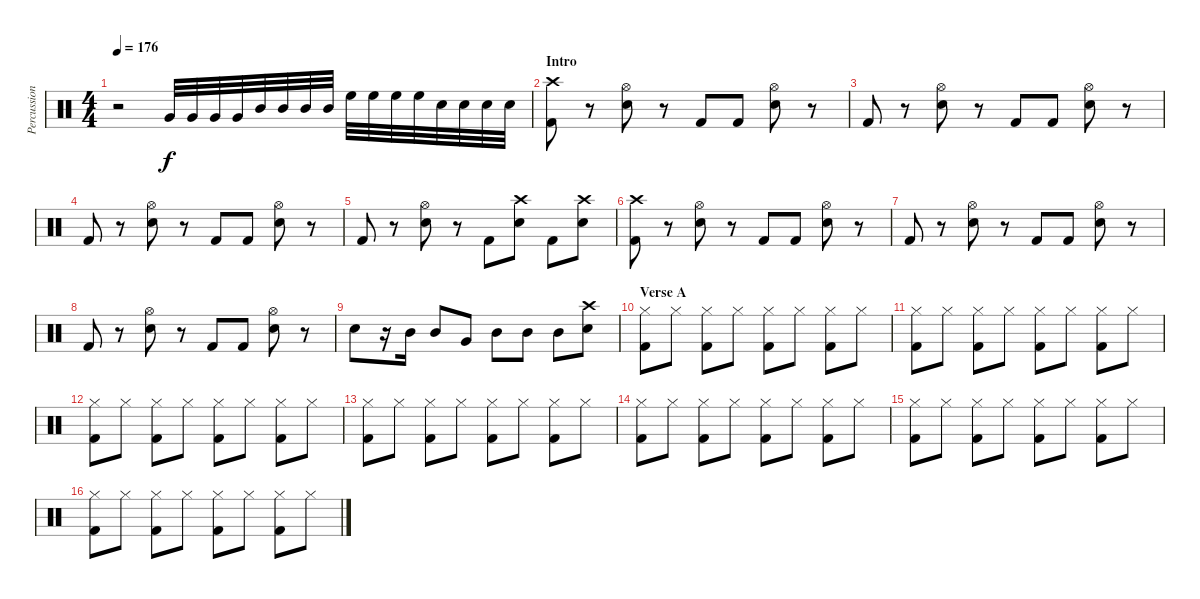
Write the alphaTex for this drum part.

\track ("Percussion" "Percussion") {instrument percussion}
\staff {score}
\articulation defaults
\ts (4 4)
\tempo 176
\clef neutral
\ks c
r.2{dy f} "Very Low Tom (hit)".32 "Very Low Tom (hit)".32 "Very Low Tom (hit)".32 "Very Low Tom (hit)".32 "Mid Tom (hit)".32 "Mid Tom (hit)".32 "Mid Tom (hit)".32 "Mid Tom (hit)".32 "High Floor Tom (hit)".32 "High Floor Tom (hit)".32 "High Floor Tom (hit)".32 "High Floor Tom (hit)".32 "Snare (hit) 2".32 "Snare (hit) 2".32 "Snare (hit) 2".32 "Snare (hit) 2".32 |
\section ("" "Intro")
("Crash high (hit)" "Kick (hit) 2").8 r.8 ("Hi-Hat (open)" "Snare (hit) 2").8 r.8 "Kick (hit) 2".8 "Kick (hit) 2".8 ("Hi-Hat (open)" "Snare (hit) 2").8 r.8 |
"Kick (hit) 2".8 r.8 ("Hi-Hat (open)" "Snare (hit) 2").8 r.8 "Kick (hit) 2".8 "Kick (hit) 2".8 ("Hi-Hat (open)" "Snare (hit) 2").8 r.8 |
"Kick (hit) 2".8 r.8 ("Hi-Hat (open)" "Snare (hit) 2").8 r.8 "Kick (hit) 2".8 "Kick (hit) 2".8 ("Hi-Hat (open)" "Snare (hit) 2").8 r.8 |
"Kick (hit) 2".8 r.8 ("Hi-Hat (open)" "Snare (hit) 2").8 r.8 "Kick (hit) 2".8 ("Crash high (hit)" "Snare (hit) 2").8 "Kick (hit) 2".8 ("Crash high (hit)" "Snare (hit) 2").8 |
("Crash high (hit)" "Kick (hit) 2").8 r.8 ("Hi-Hat (open)" "Snare (hit) 2").8 r.8 "Kick (hit) 2".8 "Kick (hit) 2".8 ("Hi-Hat (open)" "Snare (hit) 2").8 r.8 |
"Kick (hit) 2".8 r.8 ("Hi-Hat (open)" "Snare (hit) 2").8 r.8 "Kick (hit) 2".8 "Kick (hit) 2".8 ("Hi-Hat (open)" "Snare (hit) 2").8 r.8 |
"Kick (hit) 2".8 r.8 ("Hi-Hat (open)" "Snare (hit) 2").8 r.8 "Kick (hit) 2".8 "Kick (hit) 2".8 ("Hi-Hat (open)" "Snare (hit) 2").8 r.8 |
"Snare (hit) 2".8 r.16 "Mid Tom (hit)".16 "Mid Tom (hit)".8 "Very Low Tom (hit)".8 "Mid Tom (hit)".8 "Mid Tom (hit)".8 "Mid Tom (hit)".8 ("Crash high (hit)" "Snare (hit) 2").8 |
\section ("" "Verse A")
("Hi-Hat (closed)" "Kick (hit) 2").8 "Hi-Hat (closed)".8 ("Hi-Hat (closed)" "Kick (hit) 2").8 "Hi-Hat (closed)".8 ("Hi-Hat (closed)" "Kick (hit) 2").8 "Hi-Hat (closed)".8 ("Hi-Hat (closed)" "Kick (hit) 2").8 "Hi-Hat (closed)".8 |
("Hi-Hat (closed)" "Kick (hit) 2").8 "Hi-Hat (closed)".8 ("Hi-Hat (closed)" "Kick (hit) 2").8 "Hi-Hat (closed)".8 ("Hi-Hat (closed)" "Kick (hit) 2").8 "Hi-Hat (closed)".8 ("Hi-Hat (closed)" "Kick (hit) 2").8 "Hi-Hat (closed)".8 |
("Hi-Hat (closed)" "Kick (hit) 2").8 "Hi-Hat (closed)".8 ("Hi-Hat (closed)" "Kick (hit) 2").8 "Hi-Hat (closed)".8 ("Hi-Hat (closed)" "Kick (hit) 2").8 "Hi-Hat (closed)".8 ("Hi-Hat (closed)" "Kick (hit) 2").8 "Hi-Hat (closed)".8 |
("Hi-Hat (closed)" "Kick (hit) 2").8 "Hi-Hat (closed)".8 ("Hi-Hat (closed)" "Kick (hit) 2").8 "Hi-Hat (closed)".8 ("Hi-Hat (closed)" "Kick (hit) 2").8 "Hi-Hat (closed)".8 ("Hi-Hat (closed)" "Kick (hit) 2").8 "Hi-Hat (closed)".8 |
("Hi-Hat (closed)" "Kick (hit) 2").8 "Hi-Hat (closed)".8 ("Hi-Hat (closed)" "Kick (hit) 2").8 "Hi-Hat (closed)".8 ("Hi-Hat (closed)" "Kick (hit) 2").8 "Hi-Hat (closed)".8 ("Hi-Hat (closed)" "Kick (hit) 2").8 "Hi-Hat (closed)".8 |
("Hi-Hat (closed)" "Kick (hit) 2").8 "Hi-Hat (closed)".8 ("Hi-Hat (closed)" "Kick (hit) 2").8 "Hi-Hat (closed)".8 ("Hi-Hat (closed)" "Kick (hit) 2").8 "Hi-Hat (closed)".8 ("Hi-Hat (closed)" "Kick (hit) 2").8 "Hi-Hat (closed)".8 |
("Hi-Hat (closed)" "Kick (hit) 2").8 "Hi-Hat (closed)".8 ("Hi-Hat (closed)" "Kick (hit) 2").8 "Hi-Hat (closed)".8 ("Hi-Hat (closed)" "Kick (hit) 2").8 "Hi-Hat (closed)".8 ("Hi-Hat (closed)" "Kick (hit) 2").8 "Hi-Hat (closed)".8
